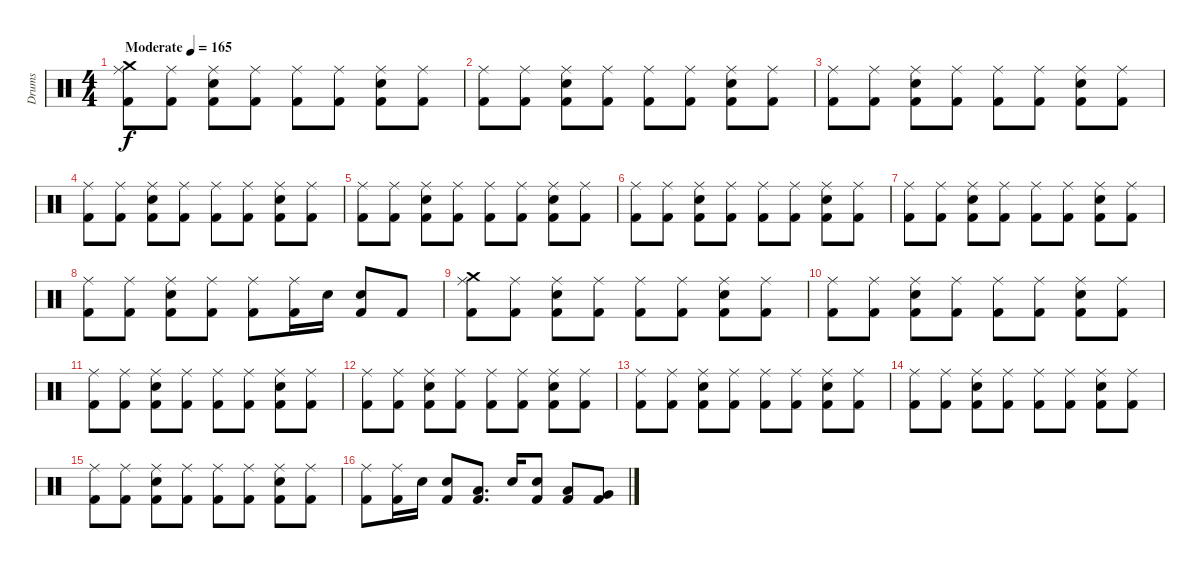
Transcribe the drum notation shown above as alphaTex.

\track ("Drums" "Drums") {instrument percussion}
\staff {score}
\articulation defaults
\ts (4 4)
\tempo (165 "Moderate")
\clef neutral
\ks c
("Crash medium (hit)" "Ride (middle)" "Kick (hit) 2").8{dy f} ("Ride (middle)" "Kick (hit) 2").8 ("Ride (middle)" "Electric Snare (hit)" "Kick (hit) 2").8 ("Ride (middle)" "Kick (hit) 2").8 ("Ride (middle)" "Kick (hit) 2").8 ("Ride (middle)" "Kick (hit) 2").8 ("Ride (middle)" "Electric Snare (hit)" "Kick (hit) 2").8 ("Ride (middle)" "Kick (hit) 2").8 |
("Ride (middle)" "Kick (hit) 2").8 ("Ride (middle)" "Kick (hit) 2").8 ("Ride (middle)" "Electric Snare (hit)" "Kick (hit) 2").8 ("Ride (middle)" "Kick (hit) 2").8 ("Ride (middle)" "Kick (hit) 2").8 ("Ride (middle)" "Kick (hit) 2").8 ("Ride (middle)" "Electric Snare (hit)" "Kick (hit) 2").8 ("Ride (middle)" "Kick (hit) 2").8 |
("Ride (middle)" "Kick (hit) 2").8 ("Ride (middle)" "Kick (hit) 2").8 ("Ride (middle)" "Electric Snare (hit)" "Kick (hit) 2").8 ("Ride (middle)" "Kick (hit) 2").8 ("Ride (middle)" "Kick (hit) 2").8 ("Ride (middle)" "Kick (hit) 2").8 ("Ride (middle)" "Electric Snare (hit)" "Kick (hit) 2").8 ("Ride (middle)" "Kick (hit) 2").8 |
("Ride (middle)" "Kick (hit) 2").8 ("Ride (middle)" "Kick (hit) 2").8 ("Ride (middle)" "Electric Snare (hit)" "Kick (hit) 2").8 ("Ride (middle)" "Kick (hit) 2").8 ("Ride (middle)" "Kick (hit) 2").8 ("Ride (middle)" "Kick (hit) 2").8 ("Ride (middle)" "Electric Snare (hit)" "Kick (hit) 2").8 ("Ride (middle)" "Kick (hit) 2").8 |
("Ride (middle)" "Kick (hit) 2").8 ("Ride (middle)" "Kick (hit) 2").8 ("Ride (middle)" "Electric Snare (hit)" "Kick (hit) 2").8 ("Ride (middle)" "Kick (hit) 2").8 ("Ride (middle)" "Kick (hit) 2").8 ("Ride (middle)" "Kick (hit) 2").8 ("Ride (middle)" "Electric Snare (hit)" "Kick (hit) 2").8 ("Ride (middle)" "Kick (hit) 2").8 |
("Ride (middle)" "Kick (hit) 2").8 ("Ride (middle)" "Kick (hit) 2").8 ("Ride (middle)" "Electric Snare (hit)" "Kick (hit) 2").8 ("Ride (middle)" "Kick (hit) 2").8 ("Ride (middle)" "Kick (hit) 2").8 ("Ride (middle)" "Kick (hit) 2").8 ("Ride (middle)" "Electric Snare (hit)" "Kick (hit) 2").8 ("Ride (middle)" "Kick (hit) 2").8 |
("Ride (middle)" "Kick (hit) 2").8 ("Ride (middle)" "Kick (hit) 2").8 ("Ride (middle)" "Electric Snare (hit)" "Kick (hit) 2").8 ("Ride (middle)" "Kick (hit) 2").8 ("Ride (middle)" "Kick (hit) 2").8 ("Ride (middle)" "Kick (hit) 2").8 ("Ride (middle)" "Electric Snare (hit)" "Kick (hit) 2").8 ("Ride (middle)" "Kick (hit) 2").8 |
("Ride (middle)" "Kick (hit) 2").8 ("Ride (middle)" "Kick (hit) 2").8 ("Ride (middle)" "Electric Snare (hit)" "Kick (hit) 2").8 ("Ride (middle)" "Kick (hit) 2").8 ("Ride (middle)" "Kick (hit) 2").8 ("Ride (middle)" "Kick (hit) 2").16 "Electric Snare (hit)".16 ("Electric Snare (hit)" "Kick (hit) 2").8 "Kick (hit) 2".8 |
("Crash medium (hit)" "Ride (middle)" "Kick (hit) 2").8 ("Ride (middle)" "Kick (hit) 2").8 ("Ride (middle)" "Electric Snare (hit)" "Kick (hit) 2").8 ("Ride (middle)" "Kick (hit) 2").8 ("Ride (middle)" "Kick (hit) 2").8 ("Ride (middle)" "Kick (hit) 2").8 ("Ride (middle)" "Electric Snare (hit)" "Kick (hit) 2").8 ("Ride (middle)" "Kick (hit) 2").8 |
("Ride (middle)" "Kick (hit) 2").8 ("Ride (middle)" "Kick (hit) 2").8 ("Ride (middle)" "Electric Snare (hit)" "Kick (hit) 2").8 ("Ride (middle)" "Kick (hit) 2").8 ("Ride (middle)" "Kick (hit) 2").8 ("Ride (middle)" "Kick (hit) 2").8 ("Ride (middle)" "Electric Snare (hit)" "Kick (hit) 2").8 ("Ride (middle)" "Kick (hit) 2").8 |
("Ride (middle)" "Kick (hit) 2").8 ("Ride (middle)" "Kick (hit) 2").8 ("Ride (middle)" "Electric Snare (hit)" "Kick (hit) 2").8 ("Ride (middle)" "Kick (hit) 2").8 ("Ride (middle)" "Kick (hit) 2").8 ("Ride (middle)" "Kick (hit) 2").8 ("Ride (middle)" "Electric Snare (hit)" "Kick (hit) 2").8 ("Ride (middle)" "Kick (hit) 2").8 |
("Ride (middle)" "Kick (hit) 2").8 ("Ride (middle)" "Kick (hit) 2").8 ("Ride (middle)" "Electric Snare (hit)" "Kick (hit) 2").8 ("Ride (middle)" "Kick (hit) 2").8 ("Ride (middle)" "Kick (hit) 2").8 ("Ride (middle)" "Kick (hit) 2").8 ("Ride (middle)" "Electric Snare (hit)" "Kick (hit) 2").8 ("Ride (middle)" "Kick (hit) 2").8 |
("Ride (middle)" "Kick (hit) 2").8 ("Ride (middle)" "Kick (hit) 2").8 ("Ride (middle)" "Electric Snare (hit)" "Kick (hit) 2").8 ("Ride (middle)" "Kick (hit) 2").8 ("Ride (middle)" "Kick (hit) 2").8 ("Ride (middle)" "Kick (hit) 2").8 ("Ride (middle)" "Electric Snare (hit)" "Kick (hit) 2").8 ("Ride (middle)" "Kick (hit) 2").8 |
("Ride (middle)" "Kick (hit) 2").8 ("Ride (middle)" "Kick (hit) 2").8 ("Ride (middle)" "Electric Snare (hit)" "Kick (hit) 2").8 ("Ride (middle)" "Kick (hit) 2").8 ("Ride (middle)" "Kick (hit) 2").8 ("Ride (middle)" "Kick (hit) 2").8 ("Ride (middle)" "Electric Snare (hit)" "Kick (hit) 2").8 ("Ride (middle)" "Kick (hit) 2").8 |
("Ride (middle)" "Kick (hit) 2").8 ("Ride (middle)" "Kick (hit) 2").8 ("Ride (middle)" "Electric Snare (hit)" "Kick (hit) 2").8 ("Ride (middle)" "Kick (hit) 2").8 ("Ride (middle)" "Kick (hit) 2").8 ("Ride (middle)" "Kick (hit) 2").8 ("Ride (middle)" "Electric Snare (hit)" "Kick (hit) 2").8 ("Ride (middle)" "Kick (hit) 2").8 |
("Ride (middle)" "Kick (hit) 2").8 ("Ride (middle)" "Kick (hit) 2").16 "Electric Snare (hit)".16 ("Electric Snare (hit)" "Kick (hit) 2").8 ("Low Tom (hit)" "Kick (hit) 2").8{d} "Electric Snare (hit)".16 ("Electric Snare (hit)" "Kick (hit) 2").8 ("Low Tom (hit)" "Kick (hit) 2").8 ("Very Low Tom (hit)" "Kick (hit) 2").8
